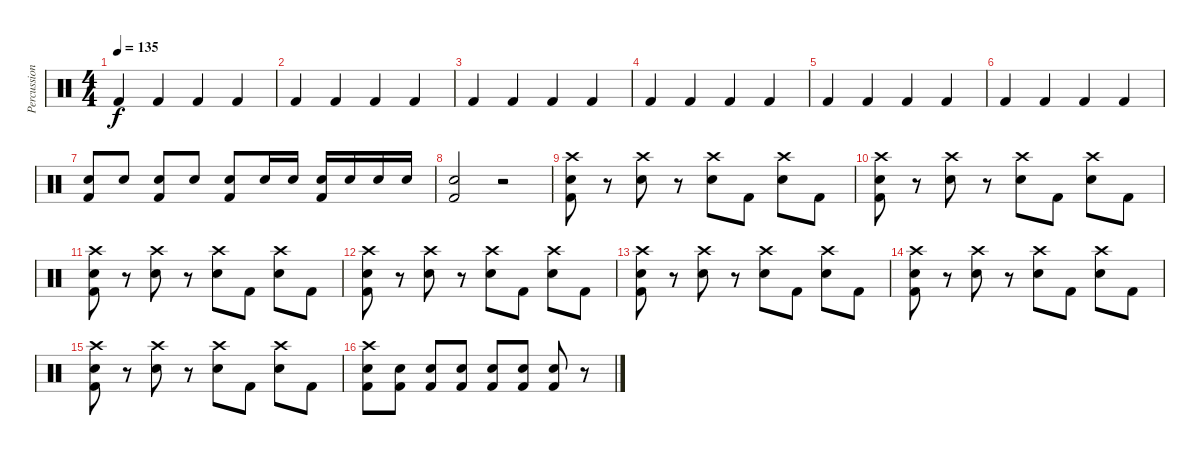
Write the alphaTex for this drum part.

\track ("Percussion" "Percussion") {instrument percussion}
\staff {score}
\articulation defaults
\ts (4 4)
\tempo 135
\clef neutral
\ks c "Kick (hit) 2".4{dy f} "Kick (hit) 2".4 "Kick (hit) 2".4 "Kick (hit) 2".4
|
"Kick (hit) 2".4 "Kick (hit) 2".4 "Kick (hit) 2".4 "Kick (hit) 2".4 |
"Kick (hit) 2".4 "Kick (hit) 2".4 "Kick (hit) 2".4 "Kick (hit) 2".4 |
"Kick (hit) 2".4 "Kick (hit) 2".4 "Kick (hit) 2".4 "Kick (hit) 2".4 |
"Kick (hit) 2".4 "Kick (hit) 2".4 "Kick (hit) 2".4 "Kick (hit) 2".4 |
"Kick (hit) 2".4 "Kick (hit) 2".4 "Kick (hit) 2".4 "Kick (hit) 2".4 |
("Snare (hit) 2" "Kick (hit) 2").8 "Snare (hit) 2".8 ("Snare (hit) 2" "Kick (hit) 2").8 "Snare (hit) 2".8 ("Snare (hit) 2" "Kick (hit) 2").8 "Snare (hit) 2".16 "Snare (hit) 2".16 ("Snare (hit) 2" "Kick (hit) 2").16 "Snare (hit) 2".16 "Snare (hit) 2".16 "Snare (hit) 2".16 |
("Snare (hit) 2" "Kick (hit) 2").2 r.2 |
("Crash high (hit)" "Snare (hit) 2" "Kick (hit) 2").8 r.8 ("Crash high (hit)" "Snare (hit) 2").8 r.8 ("Crash high (hit)" "Snare (hit) 2").8 "Kick (hit) 2".8 ("Crash high (hit)" "Snare (hit) 2").8 "Kick (hit) 2".8 |
("Crash high (hit)" "Snare (hit) 2" "Kick (hit) 2").8 r.8 ("Crash high (hit)" "Snare (hit) 2").8 r.8 ("Crash high (hit)" "Snare (hit) 2").8 "Kick (hit) 2".8 ("Crash high (hit)" "Snare (hit) 2").8 "Kick (hit) 2".8 |
("Crash high (hit)" "Snare (hit) 2" "Kick (hit) 2").8 r.8 ("Crash high (hit)" "Snare (hit) 2").8 r.8 ("Crash high (hit)" "Snare (hit) 2").8 "Kick (hit) 2".8 ("Crash high (hit)" "Snare (hit) 2").8 "Kick (hit) 2".8 |
("Crash high (hit)" "Snare (hit) 2" "Kick (hit) 2").8 r.8 ("Crash high (hit)" "Snare (hit) 2").8 r.8 ("Crash high (hit)" "Snare (hit) 2").8 "Kick (hit) 2".8 ("Crash high (hit)" "Snare (hit) 2").8 "Kick (hit) 2".8 |
("Crash high (hit)" "Snare (hit) 2" "Kick (hit) 2").8 r.8 ("Crash high (hit)" "Snare (hit) 2").8 r.8 ("Crash high (hit)" "Snare (hit) 2").8 "Kick (hit) 2".8 ("Crash high (hit)" "Snare (hit) 2").8 "Kick (hit) 2".8 |
("Crash high (hit)" "Snare (hit) 2" "Kick (hit) 2").8 r.8 ("Crash high (hit)" "Snare (hit) 2").8 r.8 ("Crash high (hit)" "Snare (hit) 2").8 "Kick (hit) 2".8 ("Crash high (hit)" "Snare (hit) 2").8 "Kick (hit) 2".8 |
("Crash high (hit)" "Snare (hit) 2" "Kick (hit) 2").8 r.8 ("Crash high (hit)" "Snare (hit) 2").8 r.8 ("Crash high (hit)" "Snare (hit) 2").8 "Kick (hit) 2".8 ("Crash high (hit)" "Snare (hit) 2").8 "Kick (hit) 2".8 |
("Crash high (hit)" "Snare (hit) 2" "Kick (hit) 2").8 ("Snare (hit) 2" "Kick (hit) 2").8 ("Snare (hit) 2" "Kick (hit) 2").8 ("Snare (hit) 2" "Kick (hit) 2").8 ("Snare (hit) 2" "Kick (hit) 2").8 ("Snare (hit) 2" "Kick (hit) 2").8 ("Snare (hit) 2" "Kick (hit) 2").8 r.8
